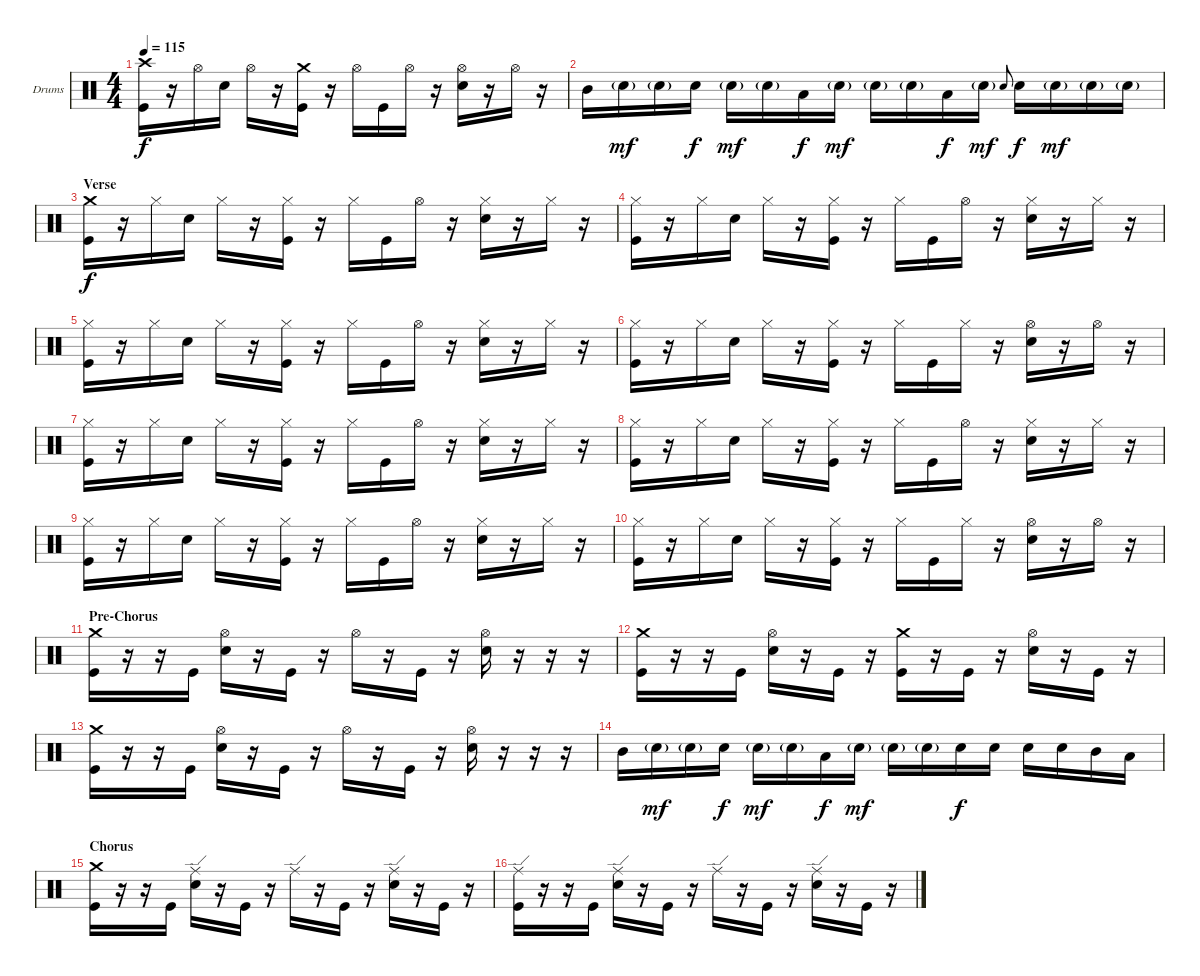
\defaultSystemsLayout 4
\bracketExtendMode nobrackets
\firstSystemTrackNameOrientation horizontal
\otherSystemsTrackNameOrientation horizontal
\track ("Dave Krusen" "Drums") {instrument percussion}
\staff {score}
\articulation defaults
\ts (4 4)
\tempo 115
\clef neutral
\ks c
("Crash high (hit)" "Kick (hit)").16{dy f} r.16 "Hi-Hat (open)".16 "Snare (hit) 2".16 "Hi-Hat (open)".16 r.16 ("Crash medium (hit)" "Kick (hit)").16 r.16 "Hi-Hat (open)".16 "Kick (hit)".16 "Hi-Hat (open)".16 r.16 ("Hi-Hat (open)" "Snare (hit) 2").16 r.16 "Hi-Hat (open)".16 r.16 |
"Mid Tom (hit)".16 "Snare (hit) 2"{g}.16{dy mf} "Snare (hit) 2"{g}.16 "Snare (hit) 2".16{dy f} "Snare (hit) 2"{g}.16{dy mf} "Snare (hit) 2"{g}.16 "Low Tom (hit)".16{dy f} "Snare (hit) 2"{g}.16{dy mf} "Snare (hit) 2"{g}.16 "Snare (hit) 2"{g}.16 "Low Tom (hit)".16{dy f} "Snare (hit) 2"{g}.16{dy mf} "Snare (hit) 2".8{gr onbeat} "Snare (hit) 2".16{dy f} "Snare (hit) 2"{g}.16{dy mf} "Snare (hit) 2"{g}.16 "Snare (hit) 2"{g}.16 |
\section ("" "Verse")
("Crash medium (hit)" "Kick (hit)").16{dy f} r.16 "Hi-Hat (closed)".16 "Snare (hit) 2".16 "Hi-Hat (closed)".16 r.16 ("Hi-Hat (closed)" "Kick (hit)").16 r.16 "Hi-Hat (closed)".16 "Kick (hit)".16 "Hi-Hat (open)".16 r.16 ("Hi-Hat (closed)" "Snare (hit) 2").16 r.16 "Hi-Hat (closed)".16 r.16 |
("Hi-Hat (closed)" "Kick (hit)").16 r.16 "Hi-Hat (closed)".16 "Snare (hit) 2".16 "Hi-Hat (closed)".16 r.16 ("Hi-Hat (closed)" "Kick (hit)").16 r.16 "Hi-Hat (closed)".16 "Kick (hit)".16 "Hi-Hat (open)".16 r.16 ("Hi-Hat (closed)" "Snare (hit) 2").16 r.16 "Hi-Hat (closed)".16 r.16 |
("Hi-Hat (closed)" "Kick (hit)").16 r.16 "Hi-Hat (closed)".16 "Snare (hit) 2".16 "Hi-Hat (closed)".16 r.16 ("Hi-Hat (closed)" "Kick (hit)").16 r.16 "Hi-Hat (closed)".16 "Kick (hit)".16 "Hi-Hat (open)".16 r.16 ("Hi-Hat (closed)" "Snare (hit) 2").16 r.16 "Hi-Hat (closed)".16 r.16 |
("Hi-Hat (closed)" "Kick (hit)").16 r.16 "Hi-Hat (closed)".16 "Snare (hit) 2".16 "Hi-Hat (closed)".16 r.16 ("Hi-Hat (closed)" "Kick (hit)").16 r.16 "Hi-Hat (closed)".16 "Kick (hit)".16 "Hi-Hat (closed)".16 r.16 ("Hi-Hat (open)" "Snare (hit) 2").16 r.16 "Hi-Hat (open)".16 r.16 |
("Hi-Hat (closed)" "Kick (hit)").16 r.16 "Hi-Hat (closed)".16 "Snare (hit) 2".16 "Hi-Hat (closed)".16 r.16 ("Hi-Hat (closed)" "Kick (hit)").16 r.16 "Hi-Hat (closed)".16 "Kick (hit)".16 "Hi-Hat (open)".16 r.16 ("Hi-Hat (closed)" "Snare (hit) 2").16 r.16 "Hi-Hat (closed)".16 r.16 |
("Hi-Hat (closed)" "Kick (hit)").16 r.16 "Hi-Hat (closed)".16 "Snare (hit) 2".16 "Hi-Hat (closed)".16 r.16 ("Hi-Hat (closed)" "Kick (hit)").16 r.16 "Hi-Hat (closed)".16 "Kick (hit)".16 "Hi-Hat (open)".16 r.16 ("Hi-Hat (closed)" "Snare (hit) 2").16 r.16 "Hi-Hat (closed)".16 r.16 |
("Hi-Hat (closed)" "Kick (hit)").16 r.16 "Hi-Hat (closed)".16 "Snare (hit) 2".16 "Hi-Hat (closed)".16 r.16 ("Hi-Hat (closed)" "Kick (hit)").16 r.16 "Hi-Hat (closed)".16 "Kick (hit)".16 "Hi-Hat (open)".16 r.16 ("Hi-Hat (closed)" "Snare (hit) 2").16 r.16 "Hi-Hat (closed)".16 r.16 |
("Hi-Hat (closed)" "Kick (hit)").16 r.16 "Hi-Hat (closed)".16 "Snare (hit) 2".16 "Hi-Hat (closed)".16 r.16 ("Hi-Hat (closed)" "Kick (hit)").16 r.16 "Hi-Hat (closed)".16 "Kick (hit)".16 "Hi-Hat (closed)".16 r.16 ("Hi-Hat (open)" "Snare (hit) 2").16 r.16 "Hi-Hat (open)".16 r.16 |
\section ("" "Pre-Chorus")
("Crash medium (hit)" "Kick (hit)").16 r.16 r.16 "Kick (hit)".16 ("Hi-Hat (open)" "Snare (hit) 2").16 r.16 "Kick (hit)".16 r.16 "Hi-Hat (open)".16 r.16 "Kick (hit)".16 r.16 ("Hi-Hat (open)" "Snare (hit) 2").16 r.16 r.16 r.16 |
("Crash medium (hit)" "Kick (hit)").16 r.16 r.16 "Kick (hit)".16 ("Hi-Hat (open)" "Snare (hit) 2").16 r.16 "Kick (hit)".16 r.16 ("Crash medium (hit)" "Kick (hit)").16 r.16 "Kick (hit)".16 r.16 ("Hi-Hat (open)" "Snare (hit) 2").16 r.16 "Kick (hit)".16 r.16 |
("Crash medium (hit)" "Kick (hit)").16 r.16 r.16 "Kick (hit)".16 ("Hi-Hat (open)" "Snare (hit) 2").16 r.16 "Kick (hit)".16 r.16 "Hi-Hat (open)".16 r.16 "Kick (hit)".16 r.16 ("Hi-Hat (open)" "Snare (hit) 2").16 r.16 r.16 r.16 |
"Mid Tom (hit)".16 "Snare (hit) 2"{g}.16{dy mf} "Snare (hit) 2"{g}.16 "Snare (hit) 2".16{dy f} "Snare (hit) 2"{g}.16{dy mf} "Snare (hit) 2"{g}.16 "Low Tom (hit)".16{dy f} "Snare (hit) 2"{g}.16{dy mf} "Snare (hit) 2"{g}.16 "Snare (hit) 2"{g}.16 "Snare (hit) 2".16{dy f} "Snare (hit) 2".16 "Snare (hit) 2".16 "Snare (hit) 2".16 "Mid Tom (hit)".16 "Low Tom (hit)".16 |
\section ("" "Chorus")
("Crash medium (hit)" "Kick (hit)").16 r.16 r.16 "Kick (hit)".16 ("Ride (edge)" "Snare (hit) 2").16 r.16 "Kick (hit)".16 r.16 "Ride (edge)".16 r.16 "Kick (hit)".16 r.16 ("Ride (edge)" "Snare (hit) 2").16 r.16 "Kick (hit)".16 r.16 |
("Ride (edge)" "Kick (hit)").16 r.16 r.16 "Kick (hit)".16 ("Ride (edge)" "Snare (hit) 2").16 r.16 "Kick (hit)".16 r.16 "Ride (edge)".16 r.16 "Kick (hit)".16 r.16 ("Ride (edge)" "Snare (hit) 2").16 r.16 "Kick (hit)".16 r.16
